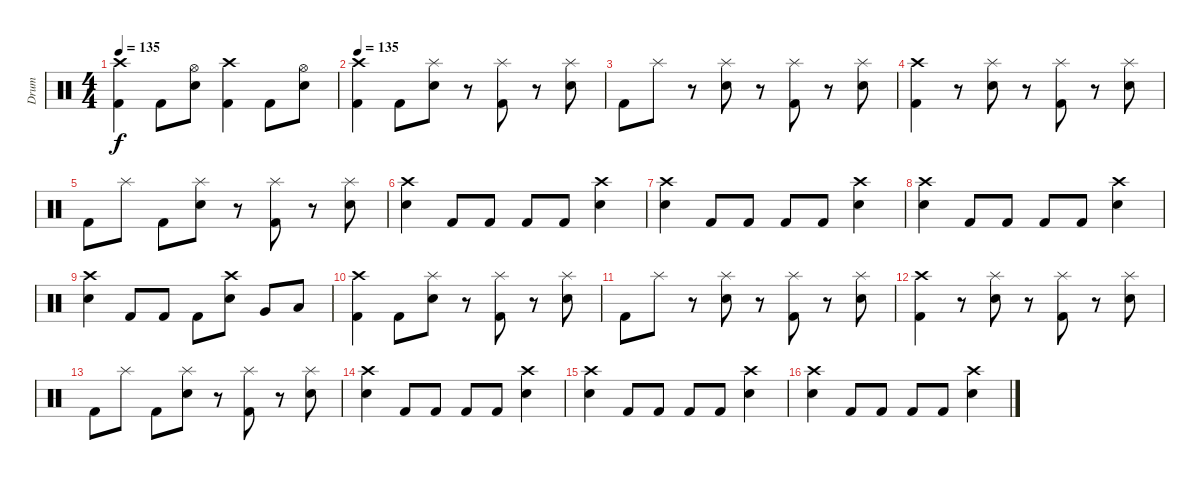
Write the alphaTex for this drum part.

\track ("Drum" "Drum") {instrument percussion}
\staff {score}
\articulation defaults
\ts (4 4)
\tempo 135
\clef neutral
\ks c
("Kick (hit) 2" "Crash high (hit)").4{dy f} "Kick (hit) 2".8 ("Hi-Hat (open)" "Electric Snare (hit)").8 ("Crash high (hit)" "Kick (hit) 2").4 "Kick (hit) 2".8 ("Electric Snare (hit)" "Hi-Hat (open)").8 |
\tempo 135
("Crash high (hit)" "Kick (hit) 2").4 "Kick (hit) 2".8 ("Splash (hit)" "Electric Snare (hit)").8 r.8 ("Splash (hit)" "Kick (hit) 2").8 r.8 ("Splash (hit)" "Electric Snare (hit)").8 |
"Kick (hit) 2".8 "Splash (hit)".8 r.8 ("Splash (hit)" "Electric Snare (hit)").8 r.8 ("Splash (hit)" "Kick (hit) 2").8 r.8 ("Splash (hit)" "Electric Snare (hit)").8 |
("Crash high (hit)" "Kick (hit) 2").4 r.8 ("Splash (hit)" "Electric Snare (hit)").8 r.8 ("Splash (hit)" "Kick (hit) 2").8 r.8 ("Splash (hit)" "Electric Snare (hit)").8 |
"Kick (hit) 2".8 "Splash (hit)".8 "Kick (hit) 2".8 ("Splash (hit)" "Electric Snare (hit)").8 r.8 ("Splash (hit)" "Kick (hit) 2").8 r.8 ("Splash (hit)" "Electric Snare (hit)").8 |
("Crash high (hit)" "Electric Snare (hit)").4 "Kick (hit) 2".8 "Kick (hit) 2".8 "Kick (hit) 2".8 "Kick (hit) 2".8 ("Crash high (hit)" "Electric Snare (hit)").4 |
("Crash high (hit)" "Electric Snare (hit)").4 "Kick (hit) 2".8 "Kick (hit) 2".8 "Kick (hit) 2".8 "Kick (hit) 2".8 ("Crash high (hit)" "Electric Snare (hit)").4 |
("Crash high (hit)" "Electric Snare (hit)").4 "Kick (hit) 2".8 "Kick (hit) 2".8 "Kick (hit) 2".8 "Kick (hit) 2".8 ("Crash high (hit)" "Electric Snare (hit)").4 |
("Crash high (hit)" "Electric Snare (hit)").4 "Kick (hit) 2".8 "Kick (hit) 2".8 "Kick (hit) 2".8 ("Crash high (hit)" "Electric Snare (hit)").8 "Very Low Tom (hit)".8 "Low Floor Tom (hit)".8 |
("Crash high (hit)" "Kick (hit) 2").4 "Kick (hit) 2".8 ("Splash (hit)" "Electric Snare (hit)").8 r.8 ("Splash (hit)" "Kick (hit) 2").8 r.8 ("Splash (hit)" "Electric Snare (hit)").8 |
"Kick (hit) 2".8 "Splash (hit)".8 r.8 ("Splash (hit)" "Electric Snare (hit)").8 r.8 ("Splash (hit)" "Kick (hit) 2").8 r.8 ("Splash (hit)" "Electric Snare (hit)").8 |
("Crash high (hit)" "Kick (hit) 2").4 r.8 ("Splash (hit)" "Electric Snare (hit)").8 r.8 ("Splash (hit)" "Kick (hit) 2").8 r.8 ("Splash (hit)" "Electric Snare (hit)").8 |
"Kick (hit) 2".8 "Splash (hit)".8 "Kick (hit) 2".8 ("Splash (hit)" "Electric Snare (hit)").8 r.8 ("Splash (hit)" "Kick (hit) 2").8 r.8 ("Splash (hit)" "Electric Snare (hit)").8 |
("Crash high (hit)" "Electric Snare (hit)").4 "Kick (hit) 2".8 "Kick (hit) 2".8 "Kick (hit) 2".8 "Kick (hit) 2".8 ("Crash high (hit)" "Electric Snare (hit)").4 |
("Crash high (hit)" "Electric Snare (hit)").4 "Kick (hit) 2".8 "Kick (hit) 2".8 "Kick (hit) 2".8 "Kick (hit) 2".8 ("Crash high (hit)" "Electric Snare (hit)").4 |
("Crash high (hit)" "Electric Snare (hit)").4 "Kick (hit) 2".8 "Kick (hit) 2".8 "Kick (hit) 2".8 "Kick (hit) 2".8 ("Crash high (hit)" "Electric Snare (hit)").4
